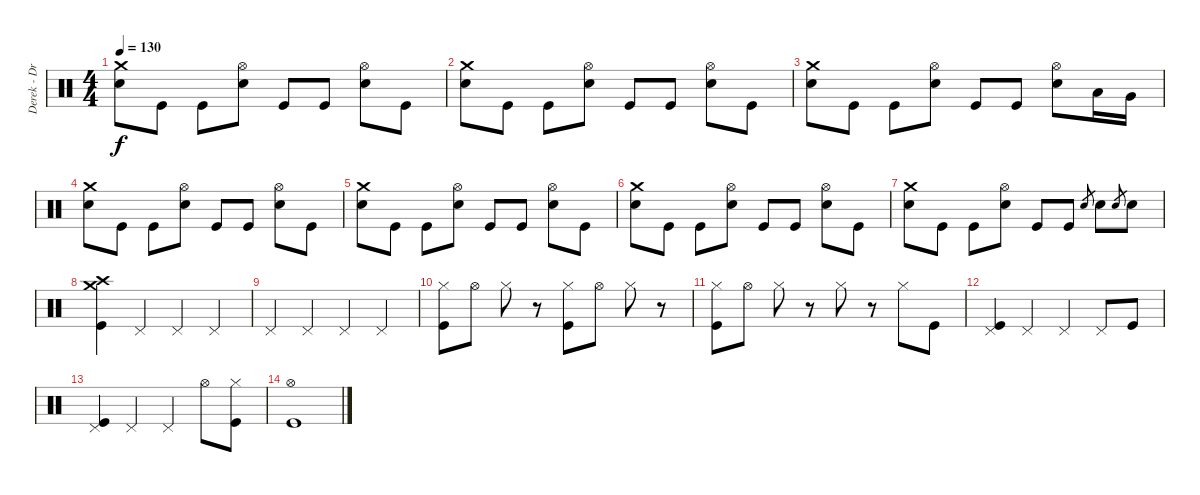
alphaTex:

\track ("Derek - Drums" "Derek - Dr") {instrument percussion}
\staff {score}
\articulation defaults
\ts (4 4)
\tempo 130
\clef neutral
\ks c
("Crash medium (hit)" "Electric Snare (hit)").8{dy f} "Kick (hit)".8 "Kick (hit)".8 ("Hi-Hat (open)" "Electric Snare (hit)").8 "Kick (hit)".8 "Kick (hit)".8 ("Hi-Hat (open)" "Electric Snare (hit)").8 "Kick (hit)".8 |
("Crash medium (hit)" "Electric Snare (hit)").8 "Kick (hit)".8 "Kick (hit)".8 ("Hi-Hat (open)" "Electric Snare (hit)").8 "Kick (hit)".8 "Kick (hit)".8 ("Hi-Hat (open)" "Electric Snare (hit)").8 "Kick (hit)".8 |
("Crash medium (hit)" "Electric Snare (hit)").8 "Kick (hit)".8 "Kick (hit)".8 ("Hi-Hat (open)" "Electric Snare (hit)").8 "Kick (hit)".8 "Kick (hit)".8 ("Hi-Hat (open)" "Electric Snare (hit)").8 "Low Tom (hit)".16 "Very Low Tom (hit)".16 |
("Crash medium (hit)" "Electric Snare (hit)").8 "Kick (hit)".8 "Kick (hit)".8 ("Hi-Hat (open)" "Electric Snare (hit)").8 "Kick (hit)".8 "Kick (hit)".8 ("Hi-Hat (open)" "Electric Snare (hit)").8 "Kick (hit)".8 |
("Crash medium (hit)" "Electric Snare (hit)").8 "Kick (hit)".8 "Kick (hit)".8 ("Hi-Hat (open)" "Electric Snare (hit)").8 "Kick (hit)".8 "Kick (hit)".8 ("Hi-Hat (open)" "Electric Snare (hit)").8 "Kick (hit)".8 |
("Crash medium (hit)" "Electric Snare (hit)").8 "Kick (hit)".8 "Kick (hit)".8 ("Hi-Hat (open)" "Electric Snare (hit)").8 "Kick (hit)".8 "Kick (hit)".8 ("Hi-Hat (open)" "Electric Snare (hit)").8 "Kick (hit)".8 |
("Crash medium (hit)" "Electric Snare (hit)").8 "Kick (hit)".8 "Kick (hit)".8 ("Hi-Hat (open)" "Electric Snare (hit)").8 "Kick (hit)".8 "Kick (hit)".8 "Electric Snare (hit)".8{gr} "Electric Snare (hit)".8 "Electric Snare (hit)".8{gr} "Electric Snare (hit)".8 |
("Crash high (hit)" "Crash medium (hit)" "Kick (hit)").4 "Pedal Hi-Hat (hit)".4 "Pedal Hi-Hat (hit)".4 "Pedal Hi-Hat (hit)".4 |
"Pedal Hi-Hat (hit)".4 "Pedal Hi-Hat (hit)".4 "Pedal Hi-Hat (hit)".4 "Pedal Hi-Hat (hit)".4 |
("Hi-Hat (closed)" "Kick (hit)").8 "Hi-Hat (open)".8 "Hi-Hat (closed)".8 r.8 ("Hi-Hat (closed)" "Kick (hit)").8 "Hi-Hat (open)".8 "Hi-Hat (closed)".8 r.8 |
("Hi-Hat (closed)" "Kick (hit)").8 "Hi-Hat (open)".8 "Hi-Hat (closed)".8 r.8 "Hi-Hat (closed)".8 r.8 "Hi-Hat (closed)".8 "Kick (hit)".8 |
("Pedal Hi-Hat (hit)" "Kick (hit)").4 "Pedal Hi-Hat (hit)".4 "Pedal Hi-Hat (hit)".4 "Pedal Hi-Hat (hit)".8 "Kick (hit)".8 |
("Pedal Hi-Hat (hit)" "Kick (hit)").4 "Pedal Hi-Hat (hit)".4 "Pedal Hi-Hat (hit)".4 "Hi-Hat (open)".8 ("Hi-Hat (closed)" "Kick (hit)").8 |
("Hi-Hat (open)" "Kick (hit)").1
